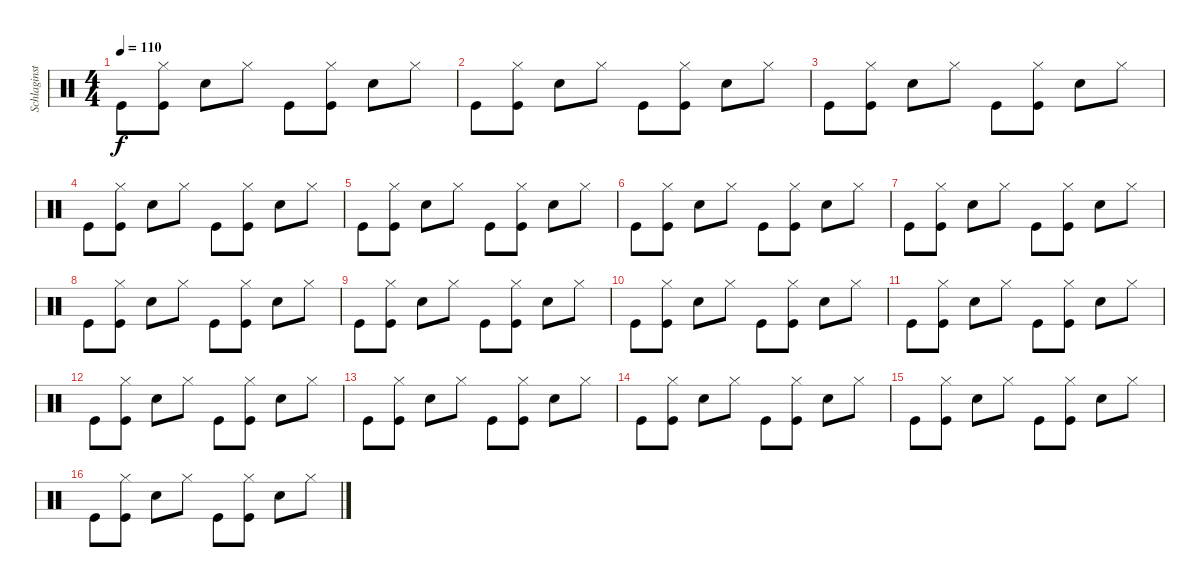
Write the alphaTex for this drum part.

\track ("Schlaginstrumente - Auswahl" "Schlaginst") {instrument percussion}
\staff {score}
\articulation defaults
\ts (4 4)
\tempo 110
\clef neutral
\ks c "Kick (hit)".8{dy f}
("Kick (hit)" "Hi-Hat (closed)").8 "Snare (hit) 2".8 "Hi-Hat (closed)".8 "Kick (hit)".8 ("Kick (hit)" "Hi-Hat (closed)").8 "Snare (hit) 2".8 "Hi-Hat (closed)".8 |
"Kick (hit)".8 ("Kick (hit)" "Hi-Hat (closed)").8 "Snare (hit) 2".8 "Hi-Hat (closed)".8 "Kick (hit)".8 ("Kick (hit)" "Hi-Hat (closed)").8 "Snare (hit) 2".8 "Hi-Hat (closed)".8 |
"Kick (hit)".8 ("Kick (hit)" "Hi-Hat (closed)").8 "Snare (hit) 2".8 "Hi-Hat (closed)".8 "Kick (hit)".8 ("Kick (hit)" "Hi-Hat (closed)").8 "Snare (hit) 2".8 "Hi-Hat (closed)".8 |
"Kick (hit)".8 ("Kick (hit)" "Hi-Hat (closed)").8 "Snare (hit) 2".8 "Hi-Hat (closed)".8 "Kick (hit)".8 ("Kick (hit)" "Hi-Hat (closed)").8 "Snare (hit) 2".8 "Hi-Hat (closed)".8 |
"Kick (hit)".8 ("Kick (hit)" "Hi-Hat (closed)").8 "Snare (hit) 2".8 "Hi-Hat (closed)".8 "Kick (hit)".8 ("Kick (hit)" "Hi-Hat (closed)").8 "Snare (hit) 2".8 "Hi-Hat (closed)".8 |
"Kick (hit)".8 ("Kick (hit)" "Hi-Hat (closed)").8 "Snare (hit) 2".8 "Hi-Hat (closed)".8 "Kick (hit)".8 ("Kick (hit)" "Hi-Hat (closed)").8 "Snare (hit) 2".8 "Hi-Hat (closed)".8 |
"Kick (hit)".8 ("Kick (hit)" "Hi-Hat (closed)").8 "Snare (hit) 2".8 "Hi-Hat (closed)".8 "Kick (hit)".8 ("Kick (hit)" "Hi-Hat (closed)").8 "Snare (hit) 2".8 "Hi-Hat (closed)".8 |
"Kick (hit)".8 ("Kick (hit)" "Hi-Hat (closed)").8 "Snare (hit) 2".8 "Hi-Hat (closed)".8 "Kick (hit)".8 ("Kick (hit)" "Hi-Hat (closed)").8 "Snare (hit) 2".8 "Hi-Hat (closed)".8 |
"Kick (hit)".8 ("Kick (hit)" "Hi-Hat (closed)").8 "Snare (hit) 2".8 "Hi-Hat (closed)".8 "Kick (hit)".8 ("Kick (hit)" "Hi-Hat (closed)").8 "Snare (hit) 2".8 "Hi-Hat (closed)".8 |
"Kick (hit)".8 ("Kick (hit)" "Hi-Hat (closed)").8 "Snare (hit) 2".8 "Hi-Hat (closed)".8 "Kick (hit)".8 ("Kick (hit)" "Hi-Hat (closed)").8 "Snare (hit) 2".8 "Hi-Hat (closed)".8 |
"Kick (hit)".8 ("Kick (hit)" "Hi-Hat (closed)").8 "Snare (hit) 2".8 "Hi-Hat (closed)".8 "Kick (hit)".8 ("Kick (hit)" "Hi-Hat (closed)").8 "Snare (hit) 2".8 "Hi-Hat (closed)".8 |
"Kick (hit)".8 ("Kick (hit)" "Hi-Hat (closed)").8 "Snare (hit) 2".8 "Hi-Hat (closed)".8 "Kick (hit)".8 ("Kick (hit)" "Hi-Hat (closed)").8 "Snare (hit) 2".8 "Hi-Hat (closed)".8 |
"Kick (hit)".8 ("Kick (hit)" "Hi-Hat (closed)").8 "Snare (hit) 2".8 "Hi-Hat (closed)".8 "Kick (hit)".8 ("Kick (hit)" "Hi-Hat (closed)").8 "Snare (hit) 2".8 "Hi-Hat (closed)".8 |
"Kick (hit)".8 ("Kick (hit)" "Hi-Hat (closed)").8 "Snare (hit) 2".8 "Hi-Hat (closed)".8 "Kick (hit)".8 ("Kick (hit)" "Hi-Hat (closed)").8 "Snare (hit) 2".8 "Hi-Hat (closed)".8 |
"Kick (hit)".8 ("Kick (hit)" "Hi-Hat (closed)").8 "Snare (hit) 2".8 "Hi-Hat (closed)".8 "Kick (hit)".8 ("Kick (hit)" "Hi-Hat (closed)").8 "Snare (hit) 2".8 "Hi-Hat (closed)".8 |
"Kick (hit)".8 ("Kick (hit)" "Hi-Hat (closed)").8 "Snare (hit) 2".8 "Hi-Hat (closed)".8 "Kick (hit)".8 ("Kick (hit)" "Hi-Hat (closed)").8 "Snare (hit) 2".8 "Hi-Hat (closed)".8
